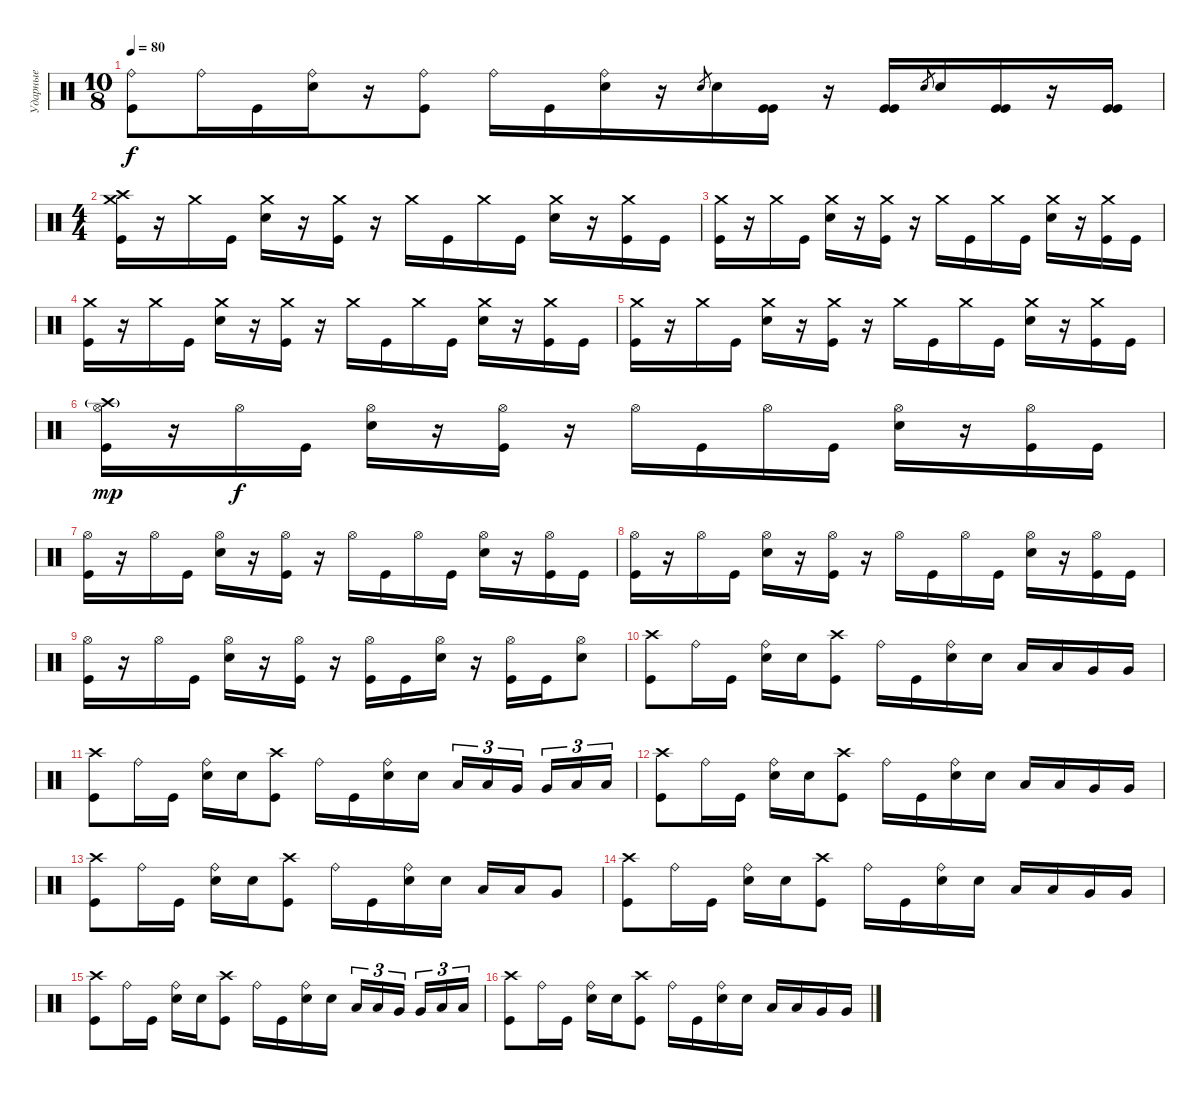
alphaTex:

\track ("Ударные" "Ударные") {instrument percussion}
\staff {score}
\articulation defaults
\ts (10 8)
\tempo 80
\clef neutral
\ks c
("Ride (bell)" "Kick (hit)").8{dy f} "Ride (bell)".16 "Kick (hit)".16 ("Electric Snare (hit)" "Ride (bell)").16 r.16 ("Ride (bell)" "Kick (hit)").8 "Ride (bell)".16 "Kick (hit)".16 ("Electric Snare (hit)" "Ride (bell)").16 r.16 "Electric Snare (hit)".8{gr} "Electric Snare (hit)".16 ("Kick (hit)" "Kick (hit)").16 r.16 ("Kick (hit)" "Kick (hit)").16 "Electric Snare (hit)".8{gr} "Electric Snare (hit)".16 ("Kick (hit)" "Kick (hit)").16 r.16 ("Kick (hit)" "Kick (hit)").16 |
\ts (4 4)
("Crash high (hit)" "Crash medium (hit)" "Kick (hit)").16 r.16 "Crash medium (hit)".16 "Kick (hit)".16 ("Crash medium (hit)" "Electric Snare (hit)").16 r.16 ("Crash medium (hit)" "Kick (hit)").16 r.16 "Crash medium (hit)".16 "Kick (hit)".16 "Crash medium (hit)".16 "Kick (hit)".16 ("Crash medium (hit)" "Electric Snare (hit)").16 r.16 ("Crash medium (hit)" "Kick (hit)").16 "Kick (hit)".16 |
("Crash medium (hit)" "Kick (hit)").16 r.16 "Crash medium (hit)".16 "Kick (hit)".16 ("Crash medium (hit)" "Electric Snare (hit)").16 r.16 ("Crash medium (hit)" "Kick (hit)").16 r.16 "Crash medium (hit)".16 "Kick (hit)".16 "Crash medium (hit)".16 "Kick (hit)".16 ("Crash medium (hit)" "Electric Snare (hit)").16 r.16 ("Crash medium (hit)" "Kick (hit)").16 "Kick (hit)".16 |
("Crash medium (hit)" "Kick (hit)").16 r.16 "Crash medium (hit)".16 "Kick (hit)".16 ("Crash medium (hit)" "Electric Snare (hit)").16 r.16 ("Crash medium (hit)" "Kick (hit)").16 r.16 "Crash medium (hit)".16 "Kick (hit)".16 "Crash medium (hit)".16 "Kick (hit)".16 ("Crash medium (hit)" "Electric Snare (hit)").16 r.16 ("Crash medium (hit)" "Kick (hit)").16 "Kick (hit)".16 |
("Crash medium (hit)" "Kick (hit)").16 r.16 "Crash medium (hit)".16 "Kick (hit)".16 ("Crash medium (hit)" "Electric Snare (hit)").16 r.16 ("Crash medium (hit)" "Kick (hit)").16 r.16 "Crash medium (hit)".16 "Kick (hit)".16 "Crash medium (hit)".16 "Kick (hit)".16 ("Crash medium (hit)" "Electric Snare (hit)").16 r.16 ("Crash medium (hit)" "Kick (hit)").16 "Kick (hit)".16 |
("Crash high (hit)"{g} "Hi-Hat (open)" "Kick (hit)").16{dy mp} r.16 "Hi-Hat (open)".16{dy f} "Kick (hit)".16 ("Hi-Hat (open)" "Electric Snare (hit)").16 r.16 ("Hi-Hat (open)" "Kick (hit)").16 r.16 "Hi-Hat (open)".16 "Kick (hit)".16 "Hi-Hat (open)".16 "Kick (hit)".16 ("Hi-Hat (open)" "Electric Snare (hit)").16 r.16 ("Hi-Hat (open)" "Kick (hit)").16 "Kick (hit)".16 |
("Hi-Hat (open)" "Kick (hit)").16 r.16 "Hi-Hat (open)".16 "Kick (hit)".16 ("Hi-Hat (open)" "Electric Snare (hit)").16 r.16 ("Hi-Hat (open)" "Kick (hit)").16 r.16 "Hi-Hat (open)".16 "Kick (hit)".16 "Hi-Hat (open)".16 "Kick (hit)".16 ("Hi-Hat (open)" "Electric Snare (hit)").16 r.16 ("Hi-Hat (open)" "Kick (hit)").16 "Kick (hit)".16 |
("Hi-Hat (open)" "Kick (hit)").16 r.16 "Hi-Hat (open)".16 "Kick (hit)".16 ("Hi-Hat (open)" "Electric Snare (hit)").16 r.16 ("Hi-Hat (open)" "Kick (hit)").16 r.16 "Hi-Hat (open)".16 "Kick (hit)".16 "Hi-Hat (open)".16 "Kick (hit)".16 ("Hi-Hat (open)" "Electric Snare (hit)").16 r.16 ("Hi-Hat (open)" "Kick (hit)").16 "Kick (hit)".16 |
("Hi-Hat (open)" "Kick (hit)").16 r.16 "Hi-Hat (open)".16 "Kick (hit)".16 ("Hi-Hat (open)" "Electric Snare (hit)").16 r.16 ("Hi-Hat (open)" "Kick (hit)").16 r.16 ("Hi-Hat (open)" "Kick (hit)").16 "Kick (hit)".16 ("Hi-Hat (open)" "Electric Snare (hit)").16 r.16 ("Hi-Hat (open)" "Kick (hit)").16 "Kick (hit)".16 ("Hi-Hat (open)" "Electric Snare (hit)").8 |
("Crash high (hit)" "Kick (hit)").8 "Ride (bell)".16 "Kick (hit)".16 ("Electric Snare (hit)" "Ride (bell)").16 "Electric Snare (hit)".16 ("Crash high (hit)" "Kick (hit)").8 "Ride (bell)".16 "Kick (hit)".16 ("Electric Snare (hit)" "Ride (bell)").16 "Electric Snare (hit)".16 "Low Tom (hit)".16 "Low Tom (hit)".16 "Very Low Tom (hit)".16 "Very Low Tom (hit)".16 |
("Crash high (hit)" "Kick (hit)").8 "Ride (bell)".16 "Kick (hit)".16 ("Electric Snare (hit)" "Ride (bell)").16 "Electric Snare (hit)".16 ("Crash high (hit)" "Kick (hit)").8 "Ride (bell)".16 "Kick (hit)".16 ("Electric Snare (hit)" "Ride (bell)").16 "Electric Snare (hit)".16 "Low Tom (hit)".16{tu (3 2)} "Low Tom (hit)".16{tu (3 2)} "Very Low Tom (hit)".16{tu (3 2) beam splitsecondary} "Very Low Tom (hit)".16{tu (3 2)} "Low Floor Tom (hit)".16{tu (3 2)} "Low Floor Tom (hit)".16{tu (3 2)} |
("Crash high (hit)" "Kick (hit)").8 "Ride (bell)".16 "Kick (hit)".16 ("Electric Snare (hit)" "Ride (bell)").16 "Electric Snare (hit)".16 ("Crash high (hit)" "Kick (hit)").8 "Ride (bell)".16 "Kick (hit)".16 ("Electric Snare (hit)" "Ride (bell)").16 "Electric Snare (hit)".16 "Low Tom (hit)".16 "Low Tom (hit)".16 "Very Low Tom (hit)".16 "Very Low Tom (hit)".16 |
("Crash high (hit)" "Kick (hit)").8 "Ride (bell)".16 "Kick (hit)".16 ("Electric Snare (hit)" "Ride (bell)").16 "Electric Snare (hit)".16 ("Crash high (hit)" "Kick (hit)").8 "Ride (bell)".16 "Kick (hit)".16 ("Electric Snare (hit)" "Ride (bell)").16 "Electric Snare (hit)".16 "Low Tom (hit)".16 "Low Tom (hit)".16 "Very Low Tom (hit)".8 |
("Crash high (hit)" "Kick (hit)").8 "Ride (bell)".16 "Kick (hit)".16 ("Electric Snare (hit)" "Ride (bell)").16 "Electric Snare (hit)".16 ("Crash high (hit)" "Kick (hit)").8 "Ride (bell)".16 "Kick (hit)".16 ("Electric Snare (hit)" "Ride (bell)").16 "Electric Snare (hit)".16 "Low Tom (hit)".16 "Low Tom (hit)".16 "Very Low Tom (hit)".16 "Very Low Tom (hit)".16 |
("Crash high (hit)" "Kick (hit)").8 "Ride (bell)".16 "Kick (hit)".16 ("Electric Snare (hit)" "Ride (bell)").16 "Electric Snare (hit)".16 ("Crash high (hit)" "Kick (hit)").8 "Ride (bell)".16 "Kick (hit)".16 ("Electric Snare (hit)" "Ride (bell)").16 "Electric Snare (hit)".16 "Low Tom (hit)".16{tu (3 2)} "Low Tom (hit)".16{tu (3 2)} "Very Low Tom (hit)".16{tu (3 2) beam splitsecondary} "Very Low Tom (hit)".16{tu (3 2)} "Low Floor Tom (hit)".16{tu (3 2)} "Low Floor Tom (hit)".16{tu (3 2)} |
("Crash high (hit)" "Kick (hit)").8 "Ride (bell)".16 "Kick (hit)".16 ("Electric Snare (hit)" "Ride (bell)").16 "Electric Snare (hit)".16 ("Crash high (hit)" "Kick (hit)").8 "Ride (bell)".16 "Kick (hit)".16 ("Electric Snare (hit)" "Ride (bell)").16 "Electric Snare (hit)".16 "Low Tom (hit)".16 "Low Tom (hit)".16 "Very Low Tom (hit)".16 "Very Low Tom (hit)".16
